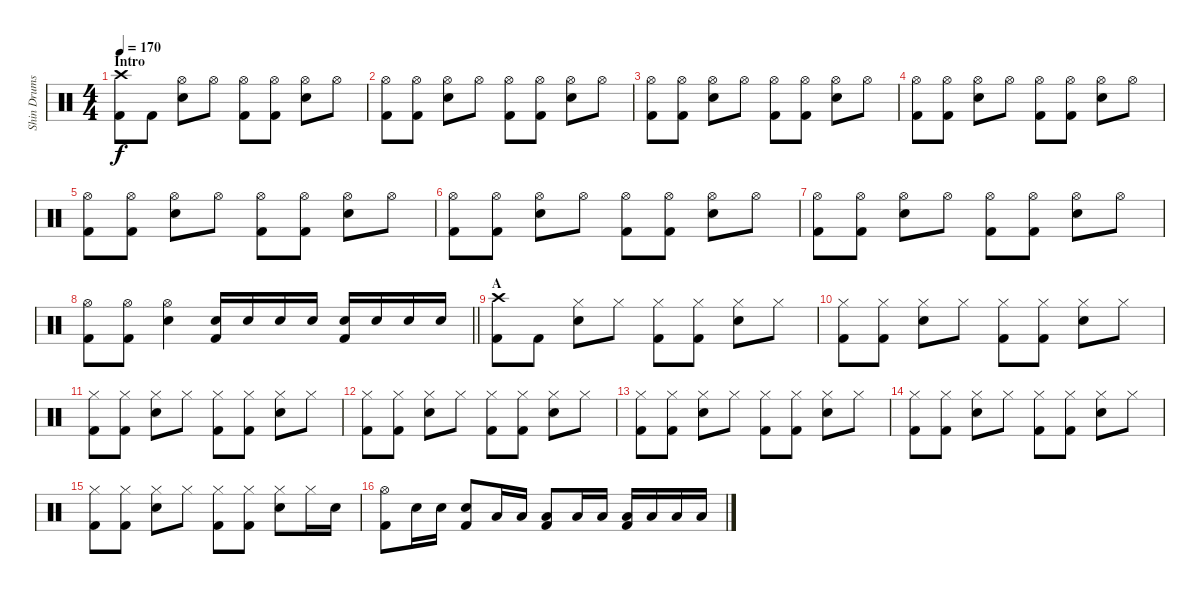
\track ("Shin Drums" "Shin Drums") {instrument percussion}
\staff {score}
\articulation defaults
\ts (4 4)
\section ("" "Intro")
\tempo 170
\clef neutral
\ks c
("Crash high (hit)" "Kick (hit) 2").8{dy f} "Kick (hit) 2".8 ("Hi-Hat (open)" "Snare (hit) 2").8 "Hi-Hat (open)".8 ("Hi-Hat (open)" "Kick (hit) 2").8 ("Hi-Hat (open)" "Kick (hit) 2").8 ("Hi-Hat (open)" "Snare (hit) 2").8 "Hi-Hat (open)".8 |
("Hi-Hat (open)" "Kick (hit) 2").8 ("Hi-Hat (open)" "Kick (hit) 2").8 ("Hi-Hat (open)" "Snare (hit) 2").8 "Hi-Hat (open)".8 ("Hi-Hat (open)" "Kick (hit) 2").8 ("Hi-Hat (open)" "Kick (hit) 2").8 ("Hi-Hat (open)" "Snare (hit) 2").8 "Hi-Hat (open)".8 |
("Hi-Hat (open)" "Kick (hit) 2").8 ("Hi-Hat (open)" "Kick (hit) 2").8 ("Hi-Hat (open)" "Snare (hit) 2").8 "Hi-Hat (open)".8 ("Hi-Hat (open)" "Kick (hit) 2").8 ("Hi-Hat (open)" "Kick (hit) 2").8 ("Hi-Hat (open)" "Snare (hit) 2").8 "Hi-Hat (open)".8 |
("Hi-Hat (open)" "Kick (hit) 2").8 ("Hi-Hat (open)" "Kick (hit) 2").8 ("Hi-Hat (open)" "Snare (hit) 2").8 "Hi-Hat (open)".8 ("Hi-Hat (open)" "Kick (hit) 2").8 ("Hi-Hat (open)" "Kick (hit) 2").8 ("Hi-Hat (open)" "Snare (hit) 2").8 "Hi-Hat (open)".8 |
("Hi-Hat (open)" "Kick (hit) 2").8 ("Hi-Hat (open)" "Kick (hit) 2").8 ("Hi-Hat (open)" "Snare (hit) 2").8 "Hi-Hat (open)".8 ("Hi-Hat (open)" "Kick (hit) 2").8 ("Hi-Hat (open)" "Kick (hit) 2").8 ("Hi-Hat (open)" "Snare (hit) 2").8 "Hi-Hat (open)".8 |
("Hi-Hat (open)" "Kick (hit) 2").8 ("Hi-Hat (open)" "Kick (hit) 2").8 ("Hi-Hat (open)" "Snare (hit) 2").8 "Hi-Hat (open)".8 ("Hi-Hat (open)" "Kick (hit) 2").8 ("Hi-Hat (open)" "Kick (hit) 2").8 ("Hi-Hat (open)" "Snare (hit) 2").8 "Hi-Hat (open)".8 |
("Hi-Hat (open)" "Kick (hit) 2").8 ("Hi-Hat (open)" "Kick (hit) 2").8 ("Hi-Hat (open)" "Snare (hit) 2").8 "Hi-Hat (open)".8 ("Hi-Hat (open)" "Kick (hit) 2").8 ("Hi-Hat (open)" "Kick (hit) 2").8 ("Hi-Hat (open)" "Snare (hit) 2").8 "Hi-Hat (open)".8 |
\barLineRight lightlight
("Hi-Hat (open)" "Kick (hit) 2").8 ("Hi-Hat (open)" "Kick (hit) 2").8 ("Hi-Hat (open)" "Snare (hit) 2").4 ("Snare (hit) 2" "Kick (hit) 2").16 "Snare (hit) 2".16 "Snare (hit) 2".16 "Snare (hit) 2".16 ("Snare (hit) 2" "Kick (hit) 2").16 "Snare (hit) 2".16 "Snare (hit)".16 "Snare (hit)".16 |
\section ("" "A")
("Crash high (hit)" "Kick (hit) 2").8 "Kick (hit) 2".8 ("Hi-Hat (closed)" "Snare (hit) 2").8 "Hi-Hat (closed)".8 ("Hi-Hat (closed)" "Kick (hit) 2").8 ("Hi-Hat (closed)" "Kick (hit) 2").8 ("Hi-Hat (closed)" "Snare (hit) 2").8 "Hi-Hat (closed)".8 |
("Hi-Hat (closed)" "Kick (hit) 2").8 ("Hi-Hat (closed)" "Kick (hit) 2").8 ("Hi-Hat (closed)" "Snare (hit) 2").8 "Hi-Hat (closed)".8 ("Hi-Hat (closed)" "Kick (hit) 2").8 ("Hi-Hat (closed)" "Kick (hit) 2").8 ("Hi-Hat (closed)" "Snare (hit) 2").8 "Hi-Hat (closed)".8 |
("Hi-Hat (closed)" "Kick (hit) 2").8 ("Hi-Hat (closed)" "Kick (hit) 2").8 ("Hi-Hat (closed)" "Snare (hit) 2").8 "Hi-Hat (closed)".8 ("Hi-Hat (closed)" "Kick (hit) 2").8 ("Hi-Hat (closed)" "Kick (hit) 2").8 ("Hi-Hat (closed)" "Snare (hit) 2").8 "Hi-Hat (closed)".8 |
("Hi-Hat (closed)" "Kick (hit) 2").8 ("Hi-Hat (closed)" "Kick (hit) 2").8 ("Hi-Hat (closed)" "Snare (hit) 2").8 "Hi-Hat (closed)".8 ("Hi-Hat (closed)" "Kick (hit) 2").8 ("Hi-Hat (closed)" "Kick (hit) 2").8 ("Hi-Hat (closed)" "Snare (hit) 2").8 "Hi-Hat (closed)".8 |
("Hi-Hat (closed)" "Kick (hit) 2").8 ("Hi-Hat (closed)" "Kick (hit) 2").8 ("Hi-Hat (closed)" "Snare (hit) 2").8 "Hi-Hat (closed)".8 ("Hi-Hat (closed)" "Kick (hit) 2").8 ("Hi-Hat (closed)" "Kick (hit) 2").8 ("Hi-Hat (closed)" "Snare (hit) 2").8 "Hi-Hat (closed)".8 |
("Hi-Hat (closed)" "Kick (hit) 2").8 ("Hi-Hat (closed)" "Kick (hit) 2").8 ("Hi-Hat (closed)" "Snare (hit) 2").8 "Hi-Hat (closed)".8 ("Hi-Hat (closed)" "Kick (hit) 2").8 ("Hi-Hat (closed)" "Kick (hit) 2").8 ("Hi-Hat (closed)" "Snare (hit) 2").8 "Hi-Hat (closed)".8 |
("Hi-Hat (closed)" "Kick (hit) 2").8 ("Hi-Hat (closed)" "Kick (hit) 2").8 ("Hi-Hat (closed)" "Snare (hit) 2").8 "Hi-Hat (closed)".8 ("Hi-Hat (closed)" "Kick (hit) 2").8 ("Hi-Hat (closed)" "Kick (hit) 2").8 ("Hi-Hat (closed)" "Snare (hit) 2").8 "Hi-Hat (closed)".16 "Snare (hit) 2".16 |
("Hi-Hat (open)" "Kick (hit) 2").8 "Snare (hit) 2".16 "Snare (hit) 2".16 ("Snare (hit) 2" "Kick (hit) 2").8 "Low Tom (hit)".16 "Low Tom (hit)".16 ("Low Tom (hit)" "Kick (hit) 2").8 "Low Floor Tom (hit)".16 "Low Floor Tom (hit)".16 ("Low Floor Tom (hit)" "Kick (hit) 2").16 "Low Floor Tom (hit)".16 "Low Floor Tom (hit)".16 "Low Floor Tom (hit)".16
